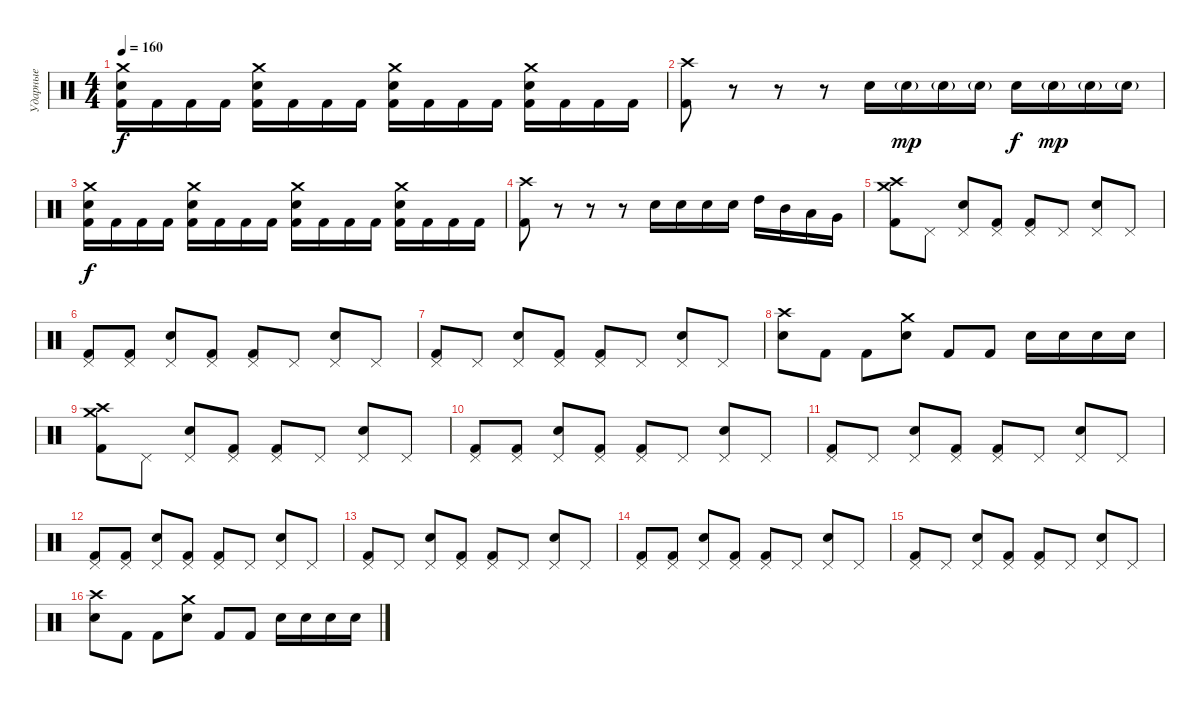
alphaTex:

\track ("Ударные" "Ударные") {instrument percussion}
\staff {score}
\articulation defaults
\ts (4 4)
\tempo 160
\clef neutral
\ks c
("Crash medium (hit)" "Electric Snare (hit)" "Kick (hit) 2").16{dy f} "Kick (hit) 2".16 "Kick (hit) 2".16 "Kick (hit) 2".16 ("Crash medium (hit)" "Electric Snare (hit)" "Kick (hit) 2").16 "Kick (hit) 2".16 "Kick (hit) 2".16 "Kick (hit) 2".16 ("Crash medium (hit)" "Electric Snare (hit)" "Kick (hit) 2").16 "Kick (hit) 2".16 "Kick (hit) 2".16 "Kick (hit) 2".16 ("Crash medium (hit)" "Electric Snare (hit)" "Kick (hit) 2").16 "Kick (hit) 2".16 "Kick (hit) 2".16 "Kick (hit) 2".16 |
("Crash high (hit)" "Kick (hit) 2").8 r.8 r.8 r.8 "Electric Snare (hit)".16 "Electric Snare (hit)"{g}.16{dy mp} "Electric Snare (hit)"{g}.16 "Electric Snare (hit)"{g}.16 "Electric Snare (hit)".16{dy f} "Electric Snare (hit)"{g}.16{dy mp} "Electric Snare (hit)"{g}.16 "Electric Snare (hit)"{g}.16 |
("Crash medium (hit)" "Electric Snare (hit)" "Kick (hit) 2").16{dy f} "Kick (hit) 2".16 "Kick (hit) 2".16 "Kick (hit) 2".16 ("Crash medium (hit)" "Electric Snare (hit)" "Kick (hit) 2").16 "Kick (hit) 2".16 "Kick (hit) 2".16 "Kick (hit) 2".16 ("Crash medium (hit)" "Electric Snare (hit)" "Kick (hit) 2").16 "Kick (hit) 2".16 "Kick (hit) 2".16 "Kick (hit) 2".16 ("Crash medium (hit)" "Electric Snare (hit)" "Kick (hit) 2").16 "Kick (hit) 2".16 "Kick (hit) 2".16 "Kick (hit) 2".16 |
("Crash high (hit)" "Kick (hit) 2").8 r.8 r.8 r.8 "Electric Snare (hit)".16 "Electric Snare (hit)".16 "Electric Snare (hit)".16 "Electric Snare (hit)".16 "High Tom (hit)".16 "Mid Tom (hit)".16 "Low Tom (hit)".16 "Very Low Tom (hit)".16 |
("Crash medium (hit)" "Crash high (hit)" "Kick (hit) 2").8 "Pedal Hi-Hat (hit)".8 ("Pedal Hi-Hat (hit)" "Electric Snare (hit)").8 ("Pedal Hi-Hat (hit)" "Kick (hit) 2").8 ("Pedal Hi-Hat (hit)" "Kick (hit) 2").8 "Pedal Hi-Hat (hit)".8 ("Pedal Hi-Hat (hit)" "Electric Snare (hit)").8 "Pedal Hi-Hat (hit)".8 |
("Pedal Hi-Hat (hit)" "Kick (hit) 2").8 ("Pedal Hi-Hat (hit)" "Kick (hit) 2").8 ("Pedal Hi-Hat (hit)" "Electric Snare (hit)").8 ("Pedal Hi-Hat (hit)" "Kick (hit) 2").8 ("Pedal Hi-Hat (hit)" "Kick (hit) 2").8 "Pedal Hi-Hat (hit)".8 ("Pedal Hi-Hat (hit)" "Electric Snare (hit)").8 "Pedal Hi-Hat (hit)".8 |
("Pedal Hi-Hat (hit)" "Kick (hit) 2").8 "Pedal Hi-Hat (hit)".8 ("Pedal Hi-Hat (hit)" "Electric Snare (hit)").8 ("Pedal Hi-Hat (hit)" "Kick (hit) 2").8 ("Pedal Hi-Hat (hit)" "Kick (hit) 2").8 "Pedal Hi-Hat (hit)".8 ("Pedal Hi-Hat (hit)" "Electric Snare (hit)").8 "Pedal Hi-Hat (hit)".8 |
("Crash high (hit)" "Electric Snare (hit)").8 "Kick (hit) 2".8 "Kick (hit) 2".8 ("Crash medium (hit)" "Electric Snare (hit)").8 "Kick (hit) 2".8 "Kick (hit) 2".8 "Electric Snare (hit)".16 "Electric Snare (hit)".16 "Electric Snare (hit)".16 "Electric Snare (hit)".16 |
("Crash medium (hit)" "Crash high (hit)" "Kick (hit) 2").8 "Pedal Hi-Hat (hit)".8 ("Pedal Hi-Hat (hit)" "Electric Snare (hit)").8 ("Pedal Hi-Hat (hit)" "Kick (hit) 2").8 ("Pedal Hi-Hat (hit)" "Kick (hit) 2").8 "Pedal Hi-Hat (hit)".8 ("Pedal Hi-Hat (hit)" "Electric Snare (hit)").8 "Pedal Hi-Hat (hit)".8 |
("Pedal Hi-Hat (hit)" "Kick (hit) 2").8 ("Pedal Hi-Hat (hit)" "Kick (hit) 2").8 ("Pedal Hi-Hat (hit)" "Electric Snare (hit)").8 ("Pedal Hi-Hat (hit)" "Kick (hit) 2").8 ("Pedal Hi-Hat (hit)" "Kick (hit) 2").8 "Pedal Hi-Hat (hit)".8 ("Pedal Hi-Hat (hit)" "Electric Snare (hit)").8 "Pedal Hi-Hat (hit)".8 |
("Pedal Hi-Hat (hit)" "Kick (hit) 2").8 "Pedal Hi-Hat (hit)".8 ("Pedal Hi-Hat (hit)" "Electric Snare (hit)").8 ("Pedal Hi-Hat (hit)" "Kick (hit) 2").8 ("Pedal Hi-Hat (hit)" "Kick (hit) 2").8 "Pedal Hi-Hat (hit)".8 ("Pedal Hi-Hat (hit)" "Electric Snare (hit)").8 "Pedal Hi-Hat (hit)".8 |
("Pedal Hi-Hat (hit)" "Kick (hit) 2").8 ("Pedal Hi-Hat (hit)" "Kick (hit) 2").8 ("Pedal Hi-Hat (hit)" "Electric Snare (hit)").8 ("Pedal Hi-Hat (hit)" "Kick (hit) 2").8 ("Pedal Hi-Hat (hit)" "Kick (hit) 2").8 "Pedal Hi-Hat (hit)".8 ("Pedal Hi-Hat (hit)" "Electric Snare (hit)").8 "Pedal Hi-Hat (hit)".8 |
("Pedal Hi-Hat (hit)" "Kick (hit) 2").8 "Pedal Hi-Hat (hit)".8 ("Pedal Hi-Hat (hit)" "Electric Snare (hit)").8 ("Pedal Hi-Hat (hit)" "Kick (hit) 2").8 ("Pedal Hi-Hat (hit)" "Kick (hit) 2").8 "Pedal Hi-Hat (hit)".8 ("Pedal Hi-Hat (hit)" "Electric Snare (hit)").8 "Pedal Hi-Hat (hit)".8 |
("Pedal Hi-Hat (hit)" "Kick (hit) 2").8 ("Pedal Hi-Hat (hit)" "Kick (hit) 2").8 ("Pedal Hi-Hat (hit)" "Electric Snare (hit)").8 ("Pedal Hi-Hat (hit)" "Kick (hit) 2").8 ("Pedal Hi-Hat (hit)" "Kick (hit) 2").8 "Pedal Hi-Hat (hit)".8 ("Pedal Hi-Hat (hit)" "Electric Snare (hit)").8 "Pedal Hi-Hat (hit)".8 |
("Pedal Hi-Hat (hit)" "Kick (hit) 2").8 "Pedal Hi-Hat (hit)".8 ("Pedal Hi-Hat (hit)" "Electric Snare (hit)").8 ("Pedal Hi-Hat (hit)" "Kick (hit) 2").8 ("Pedal Hi-Hat (hit)" "Kick (hit) 2").8 "Pedal Hi-Hat (hit)".8 ("Pedal Hi-Hat (hit)" "Electric Snare (hit)").8 "Pedal Hi-Hat (hit)".8 |
("Crash high (hit)" "Electric Snare (hit)").8 "Kick (hit) 2".8 "Kick (hit) 2".8 ("Crash medium (hit)" "Electric Snare (hit)").8 "Kick (hit) 2".8 "Kick (hit) 2".8 "Electric Snare (hit)".16 "Electric Snare (hit)".16 "Electric Snare (hit)".16 "Electric Snare (hit)".16
